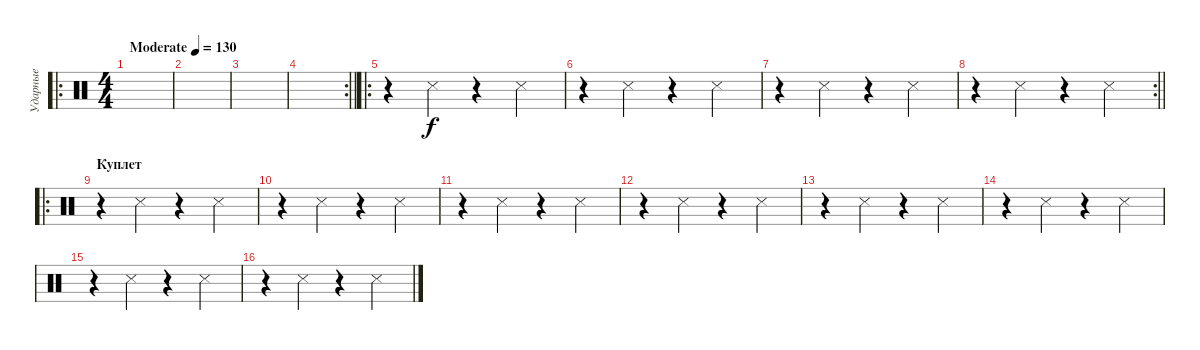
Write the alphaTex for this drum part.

\track ("Ударные" "Ударные") {instrument percussion}
\staff {score}
\articulation defaults
\ro
\ts (4 4)
\tempo (130 "Moderate")
\clef neutral
\ks c
|
|
|
\rc 2
\barLineRight lightlight
|
\ro
\section ("" "")
r.4 "Snare (side stick) 3".4 r.4 "Snare (side stick) 3".4 |
r.4 "Snare (side stick) 3".4 r.4 "Snare (side stick) 3".4 |
r.4 "Snare (side stick) 3".4 r.4 "Snare (side stick) 3".4 |
\rc 2
\barLineRight lightlight
r.4 "Snare (side stick) 3".4 r.4 "Snare (side stick) 3".4 |
\ro
\section ("" "Куплет")
r.4 "Snare (side stick) 3".4 r.4 "Snare (side stick) 3".4 |
r.4 "Snare (side stick) 3".4 r.4 "Snare (side stick) 3".4 |
r.4 "Snare (side stick) 3".4 r.4 "Snare (side stick) 3".4 |
r.4 "Snare (side stick) 3".4 r.4 "Snare (side stick) 3".4 |
r.4 "Snare (side stick) 3".4 r.4 "Snare (side stick) 3".4 |
r.4 "Snare (side stick) 3".4 r.4 "Snare (side stick) 3".4 |
r.4 "Snare (side stick) 3".4 r.4 "Snare (side stick) 3".4 |
r.4 "Snare (side stick) 3".4 r.4 "Snare (side stick) 3".4
